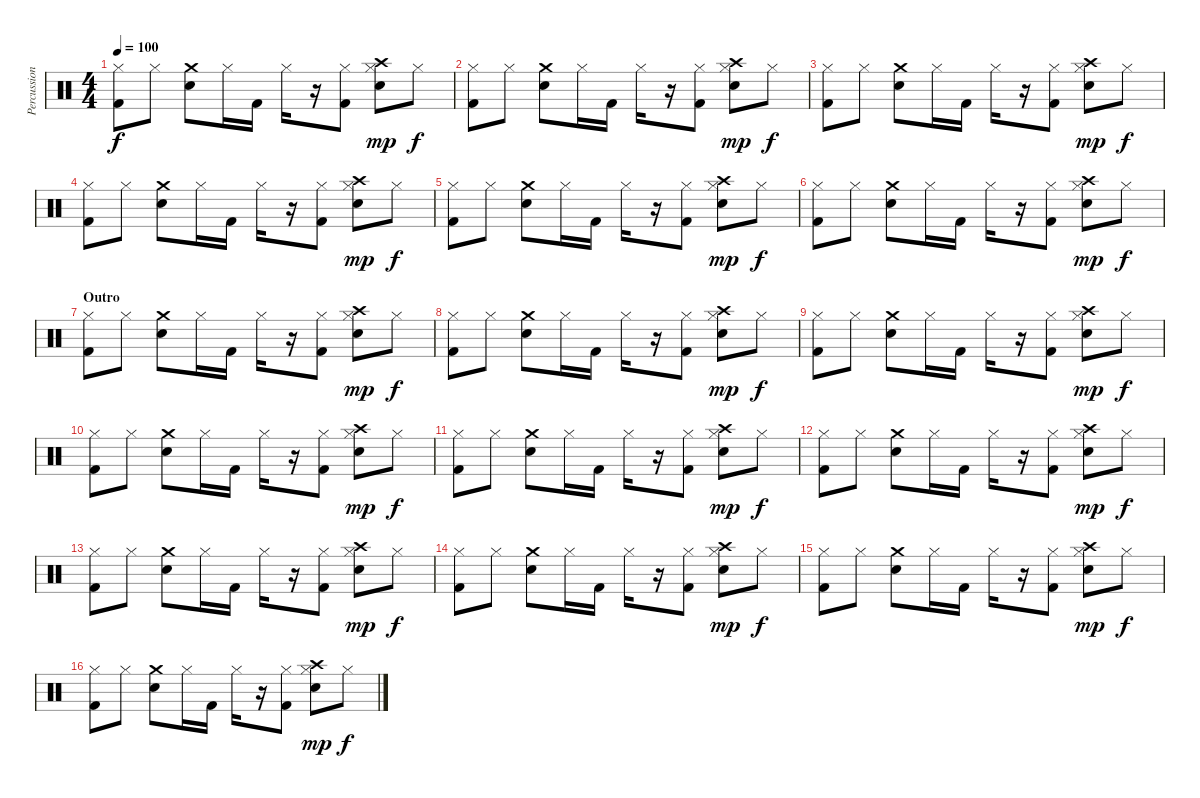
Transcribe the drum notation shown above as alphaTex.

\track ("Percussion" "Percussion") {instrument percussion}
\staff {score}
\articulation defaults
\ts (4 4)
\tempo 100
\clef neutral
\ks c
("Hi-Hat (closed)" "Kick (hit) 2").8{dy f} "Hi-Hat (closed)".8 ("Crash medium (hit)" "Electric Snare (hit)").8 "Hi-Hat (closed)".16 "Kick (hit) 2".16 "Hi-Hat (closed)".16 r.16 ("Hi-Hat (closed)" "Kick (hit) 2").8 ("Hi-Hat (closed)" "Electric Snare (hit)" "Crash high (hit)").8{dy mp} "Hi-Hat (closed)".8{dy f} |
("Hi-Hat (closed)" "Kick (hit) 2").8 "Hi-Hat (closed)".8 ("Crash medium (hit)" "Electric Snare (hit)").8 "Hi-Hat (closed)".16 "Kick (hit) 2".16 "Hi-Hat (closed)".16 r.16 ("Hi-Hat (closed)" "Kick (hit) 2").8 ("Hi-Hat (closed)" "Electric Snare (hit)" "Crash high (hit)").8{dy mp} "Hi-Hat (closed)".8{dy f} |
("Hi-Hat (closed)" "Kick (hit) 2").8 "Hi-Hat (closed)".8 ("Crash medium (hit)" "Electric Snare (hit)").8 "Hi-Hat (closed)".16 "Kick (hit) 2".16 "Hi-Hat (closed)".16 r.16 ("Hi-Hat (closed)" "Kick (hit) 2").8 ("Hi-Hat (closed)" "Electric Snare (hit)" "Crash high (hit)").8{dy mp} "Hi-Hat (closed)".8{dy f} |
("Hi-Hat (closed)" "Kick (hit) 2").8 "Hi-Hat (closed)".8 ("Crash medium (hit)" "Electric Snare (hit)").8 "Hi-Hat (closed)".16 "Kick (hit) 2".16 "Hi-Hat (closed)".16 r.16 ("Hi-Hat (closed)" "Kick (hit) 2").8 ("Hi-Hat (closed)" "Electric Snare (hit)" "Crash high (hit)").8{dy mp} "Hi-Hat (closed)".8{dy f} |
("Hi-Hat (closed)" "Kick (hit) 2").8 "Hi-Hat (closed)".8 ("Crash medium (hit)" "Electric Snare (hit)").8 "Hi-Hat (closed)".16 "Kick (hit) 2".16 "Hi-Hat (closed)".16 r.16 ("Hi-Hat (closed)" "Kick (hit) 2").8 ("Hi-Hat (closed)" "Electric Snare (hit)" "Crash high (hit)").8{dy mp} "Hi-Hat (closed)".8{dy f} |
("Hi-Hat (closed)" "Kick (hit) 2").8 "Hi-Hat (closed)".8 ("Crash medium (hit)" "Electric Snare (hit)").8 "Hi-Hat (closed)".16 "Kick (hit) 2".16 "Hi-Hat (closed)".16 r.16 ("Hi-Hat (closed)" "Kick (hit) 2").8 ("Hi-Hat (closed)" "Electric Snare (hit)" "Crash high (hit)").8{dy mp} "Hi-Hat (closed)".8{dy f} |
\section ("" "Outro")
("Hi-Hat (closed)" "Kick (hit) 2").8 "Hi-Hat (closed)".8 ("Crash medium (hit)" "Electric Snare (hit)").8 "Hi-Hat (closed)".16 "Kick (hit) 2".16 "Hi-Hat (closed)".16 r.16 ("Hi-Hat (closed)" "Kick (hit) 2").8 ("Hi-Hat (closed)" "Electric Snare (hit)" "Crash high (hit)").8{dy mp} "Hi-Hat (closed)".8{dy f} |
("Hi-Hat (closed)" "Kick (hit) 2").8 "Hi-Hat (closed)".8 ("Crash medium (hit)" "Electric Snare (hit)").8 "Hi-Hat (closed)".16 "Kick (hit) 2".16 "Hi-Hat (closed)".16 r.16 ("Hi-Hat (closed)" "Kick (hit) 2").8 ("Hi-Hat (closed)" "Electric Snare (hit)" "Crash high (hit)").8{dy mp} "Hi-Hat (closed)".8{dy f} |
("Hi-Hat (closed)" "Kick (hit) 2").8 "Hi-Hat (closed)".8 ("Crash medium (hit)" "Electric Snare (hit)").8 "Hi-Hat (closed)".16 "Kick (hit) 2".16 "Hi-Hat (closed)".16 r.16 ("Hi-Hat (closed)" "Kick (hit) 2").8 ("Hi-Hat (closed)" "Electric Snare (hit)" "Crash high (hit)").8{dy mp} "Hi-Hat (closed)".8{dy f} |
("Hi-Hat (closed)" "Kick (hit) 2").8 "Hi-Hat (closed)".8 ("Crash medium (hit)" "Electric Snare (hit)").8 "Hi-Hat (closed)".16 "Kick (hit) 2".16 "Hi-Hat (closed)".16 r.16 ("Hi-Hat (closed)" "Kick (hit) 2").8 ("Hi-Hat (closed)" "Electric Snare (hit)" "Crash high (hit)").8{dy mp} "Hi-Hat (closed)".8{dy f} |
("Hi-Hat (closed)" "Kick (hit) 2").8 "Hi-Hat (closed)".8 ("Crash medium (hit)" "Electric Snare (hit)").8 "Hi-Hat (closed)".16 "Kick (hit) 2".16 "Hi-Hat (closed)".16 r.16 ("Hi-Hat (closed)" "Kick (hit) 2").8 ("Hi-Hat (closed)" "Electric Snare (hit)" "Crash high (hit)").8{dy mp} "Hi-Hat (closed)".8{dy f} |
("Hi-Hat (closed)" "Kick (hit) 2").8 "Hi-Hat (closed)".8 ("Crash medium (hit)" "Electric Snare (hit)").8 "Hi-Hat (closed)".16 "Kick (hit) 2".16 "Hi-Hat (closed)".16 r.16 ("Hi-Hat (closed)" "Kick (hit) 2").8 ("Hi-Hat (closed)" "Electric Snare (hit)" "Crash high (hit)").8{dy mp} "Hi-Hat (closed)".8{dy f} |
("Hi-Hat (closed)" "Kick (hit) 2").8 "Hi-Hat (closed)".8 ("Crash medium (hit)" "Electric Snare (hit)").8 "Hi-Hat (closed)".16 "Kick (hit) 2".16 "Hi-Hat (closed)".16 r.16 ("Hi-Hat (closed)" "Kick (hit) 2").8 ("Hi-Hat (closed)" "Electric Snare (hit)" "Crash high (hit)").8{dy mp} "Hi-Hat (closed)".8{dy f} |
("Hi-Hat (closed)" "Kick (hit) 2").8 "Hi-Hat (closed)".8 ("Crash medium (hit)" "Electric Snare (hit)").8 "Hi-Hat (closed)".16 "Kick (hit) 2".16 "Hi-Hat (closed)".16 r.16 ("Hi-Hat (closed)" "Kick (hit) 2").8 ("Hi-Hat (closed)" "Electric Snare (hit)" "Crash high (hit)").8{dy mp} "Hi-Hat (closed)".8{dy f} |
("Hi-Hat (closed)" "Kick (hit) 2").8 "Hi-Hat (closed)".8 ("Crash medium (hit)" "Electric Snare (hit)").8 "Hi-Hat (closed)".16 "Kick (hit) 2".16 "Hi-Hat (closed)".16 r.16 ("Hi-Hat (closed)" "Kick (hit) 2").8 ("Hi-Hat (closed)" "Electric Snare (hit)" "Crash high (hit)").8{dy mp} "Hi-Hat (closed)".8{dy f} |
("Hi-Hat (closed)" "Kick (hit) 2").8 "Hi-Hat (closed)".8 ("Crash medium (hit)" "Electric Snare (hit)").8 "Hi-Hat (closed)".16 "Kick (hit) 2".16 "Hi-Hat (closed)".16 r.16 ("Hi-Hat (closed)" "Kick (hit) 2").8 ("Hi-Hat (closed)" "Electric Snare (hit)" "Crash high (hit)").8{dy mp} "Hi-Hat (closed)".8{dy f}
